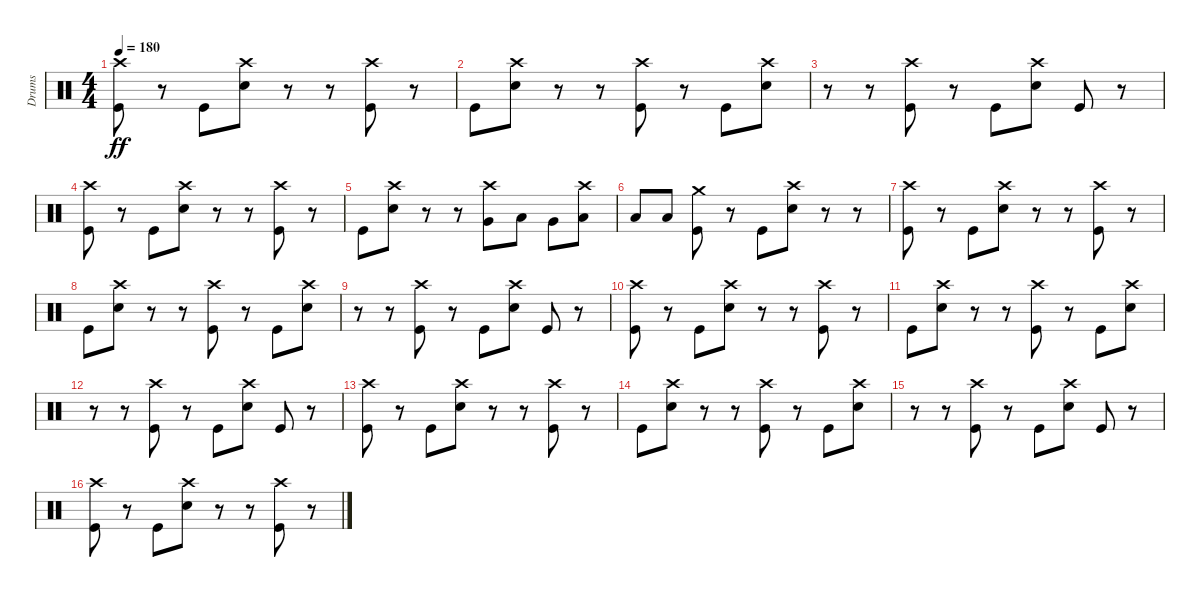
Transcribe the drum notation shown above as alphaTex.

\track ("Drums" "Drums") {instrument percussion}
\staff {score}
\articulation defaults
\ts (4 4)
\tempo 180
\clef neutral
\ks c
("Crash high (hit)" "Kick (hit)").8{dy ff} r.8 "Kick (hit)".8 ("Crash high (hit)" "Snare (hit) 2").8 r.8 r.8 ("Crash high (hit)" "Kick (hit)").8 r.8 |
"Kick (hit)".8 ("Crash high (hit)" "Snare (hit) 2").8 r.8 r.8 ("Crash high (hit)" "Kick (hit)").8 r.8 "Kick (hit)".8 ("Crash high (hit)" "Snare (hit) 2").8 |
r.8 r.8 ("Crash high (hit)" "Kick (hit)").8 r.8 "Kick (hit)".8 ("Crash high (hit)" "Snare (hit) 2").8 "Kick (hit)".8 r.8 |
("Crash high (hit)" "Kick (hit)").8 r.8 "Kick (hit)".8 ("Crash high (hit)" "Snare (hit) 2").8 r.8 r.8 ("Crash high (hit)" "Kick (hit)").8 r.8 |
"Kick (hit)".8 ("Crash high (hit)" "Snare (hit) 2").8 r.8 r.8 ("Crash high (hit)" "Very Low Tom (hit)").8 "Low Floor Tom (hit)".8 "Very Low Tom (hit)".8 ("Crash high (hit)" "Low Floor Tom (hit)").8 |
"Low Floor Tom (hit)".8 "Low Floor Tom (hit)".8 ("Crash medium (hit)" "Kick (hit)").8 r.8 "Kick (hit)".8 ("Crash high (hit)" "Snare (hit) 2").8 r.8 r.8 |
("Crash high (hit)" "Kick (hit)").8 r.8 "Kick (hit)".8 ("Crash high (hit)" "Snare (hit) 2").8 r.8 r.8 ("Crash high (hit)" "Kick (hit)").8 r.8 |
"Kick (hit)".8 ("Crash high (hit)" "Snare (hit) 2").8 r.8 r.8 ("Crash high (hit)" "Kick (hit)").8 r.8 "Kick (hit)".8 ("Crash high (hit)" "Snare (hit) 2").8 |
r.8 r.8 ("Crash high (hit)" "Kick (hit)").8 r.8 "Kick (hit)".8 ("Crash high (hit)" "Snare (hit) 2").8 "Kick (hit)".8 r.8 |
("Crash high (hit)" "Kick (hit)").8 r.8 "Kick (hit)".8 ("Crash high (hit)" "Snare (hit) 2").8 r.8 r.8 ("Crash high (hit)" "Kick (hit)").8 r.8 |
"Kick (hit)".8 ("Crash high (hit)" "Snare (hit) 2").8 r.8 r.8 ("Crash high (hit)" "Kick (hit)").8 r.8 "Kick (hit)".8 ("Crash high (hit)" "Snare (hit) 2").8 |
r.8 r.8 ("Crash high (hit)" "Kick (hit)").8 r.8 "Kick (hit)".8 ("Crash high (hit)" "Snare (hit) 2").8 "Kick (hit)".8 r.8 |
("Crash high (hit)" "Kick (hit)").8 r.8 "Kick (hit)".8 ("Crash high (hit)" "Snare (hit) 2").8 r.8 r.8 ("Crash high (hit)" "Kick (hit)").8 r.8 |
"Kick (hit)".8 ("Crash high (hit)" "Snare (hit) 2").8 r.8 r.8 ("Crash high (hit)" "Kick (hit)").8 r.8 "Kick (hit)".8 ("Crash high (hit)" "Snare (hit) 2").8 |
r.8 r.8 ("Crash high (hit)" "Kick (hit)").8 r.8 "Kick (hit)".8 ("Crash high (hit)" "Snare (hit) 2").8 "Kick (hit)".8 r.8 |
("Crash high (hit)" "Kick (hit)").8 r.8 "Kick (hit)".8 ("Crash high (hit)" "Snare (hit) 2").8 r.8 r.8 ("Crash high (hit)" "Kick (hit)").8 r.8
